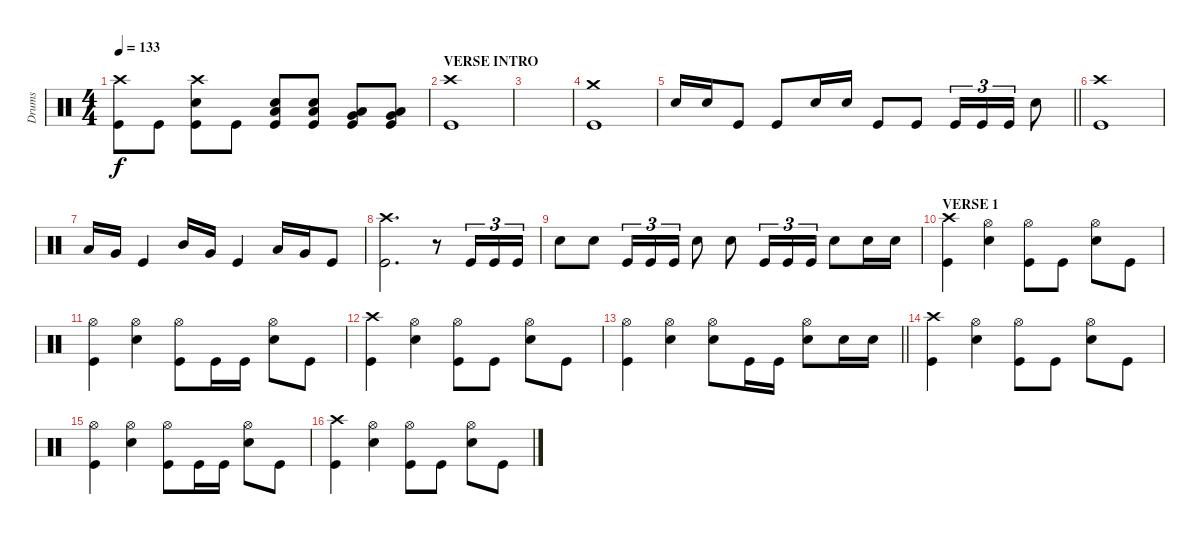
\track ("Drums" "Drums") {instrument percussion}
\staff
\articulation defaults
\ts (4 4)
\tempo 133
\clef neutral
\ks c
("Crash high (hit)" "Kick (hit)").8{dy f} "Kick (hit)".8 ("Crash high (hit)" "Electric Snare (hit)" "Kick (hit)").8 "Kick (hit)".8 ("Low Floor Tom (hit)" "Electric Snare (hit)" "Kick (hit)").8 ("Low Floor Tom (hit)" "Electric Snare (hit)" "Kick (hit)").8 ("Very Low Tom (hit)" "Low Floor Tom (hit)" "Kick (hit)").8 ("Very Low Tom (hit)" "Low Floor Tom (hit)" "Kick (hit)").8 |
\section ("" "VERSE INTRO")
("Crash high (hit)" "Kick (hit)").1 |
|
("Crash medium (hit)" "Kick (hit)").1 |
\barLineRight lightlight "Electric Snare (hit)".16 "Electric Snare (hit)".16 "Kick (hit)".8 "Kick (hit)".8 "Electric Snare (hit)".16 "Electric Snare (hit)".16 "Kick (hit)".8 "Kick (hit)".8 "Kick (hit)".16{tu (3 2)} "Kick (hit)".16{tu (3 2)} "Kick (hit)".16{tu (3 2)} "Electric Snare (hit)".8
|
("Crash high (hit)" "Kick (hit)").1 |
"Low Tom (hit)".16 "Very Low Tom (hit)".16 "Kick (hit)".4 "Mid Tom (hit)".16 "Very Low Tom (hit)".16 "Kick (hit)".4 "Low Tom (hit)".16 "Very Low Tom (hit)".16 "Kick (hit)".8 |
("Crash high (hit)" "Kick (hit)").2{d} r.8 "Kick (hit)".16{tu (3 2)} "Kick (hit)".16{tu (3 2)} "Kick (hit)".16{tu (3 2)} |
"Electric Snare (hit)".8 "Electric Snare (hit)".8 "Kick (hit)".16{tu (3 2)} "Kick (hit)".16{tu (3 2)} "Kick (hit)".16{tu (3 2)} "Electric Snare (hit)".8 "Electric Snare (hit)".8 "Kick (hit)".16{tu (3 2)} "Kick (hit)".16{tu (3 2)} "Kick (hit)".16{tu (3 2)} "Electric Snare (hit)".8 "Electric Snare (hit)".16 "Electric Snare (hit)".16 |
\section ("" "VERSE 1")
("Crash high (hit)" "Kick (hit)").4 ("Hi-Hat (open)" "Electric Snare (hit)").4 ("Hi-Hat (open)" "Kick (hit)").8 "Kick (hit)".8 ("Hi-Hat (open)" "Electric Snare (hit)").8 "Kick (hit)".8 |
("Hi-Hat (open)" "Kick (hit)").4 ("Hi-Hat (open)" "Electric Snare (hit)").4 ("Hi-Hat (open)" "Kick (hit)").8 "Kick (hit)".16 "Kick (hit)".16 ("Hi-Hat (open)" "Electric Snare (hit)").8 "Kick (hit)".8 |
("Crash high (hit)" "Kick (hit)").4 ("Hi-Hat (open)" "Electric Snare (hit)").4 ("Hi-Hat (open)" "Kick (hit)").8 "Kick (hit)".8 ("Hi-Hat (open)" "Electric Snare (hit)").8 "Kick (hit)".8 |
\barLineRight lightlight
("Hi-Hat (open)" "Kick (hit)").4 ("Hi-Hat (open)" "Electric Snare (hit)").4 ("Hi-Hat (open)" "Electric Snare (hit)").8 "Kick (hit)".16 "Kick (hit)".16 ("Hi-Hat (open)" "Electric Snare (hit)").8 "Electric Snare (hit)".16 "Electric Snare (hit)".16 |
("Crash high (hit)" "Kick (hit)").4 ("Hi-Hat (open)" "Electric Snare (hit)").4 ("Hi-Hat (open)" "Kick (hit)").8 "Kick (hit)".8 ("Hi-Hat (open)" "Electric Snare (hit)").8 "Kick (hit)".8 |
("Hi-Hat (open)" "Kick (hit)").4 ("Hi-Hat (open)" "Electric Snare (hit)").4 ("Hi-Hat (open)" "Kick (hit)").8 "Kick (hit)".16 "Kick (hit)".16 ("Hi-Hat (open)" "Electric Snare (hit)").8 "Kick (hit)".8 |
("Crash high (hit)" "Kick (hit)").4 ("Hi-Hat (open)" "Electric Snare (hit)").4 ("Hi-Hat (open)" "Kick (hit)").8 "Kick (hit)".8 ("Hi-Hat (open)" "Electric Snare (hit)").8 "Kick (hit)".8
